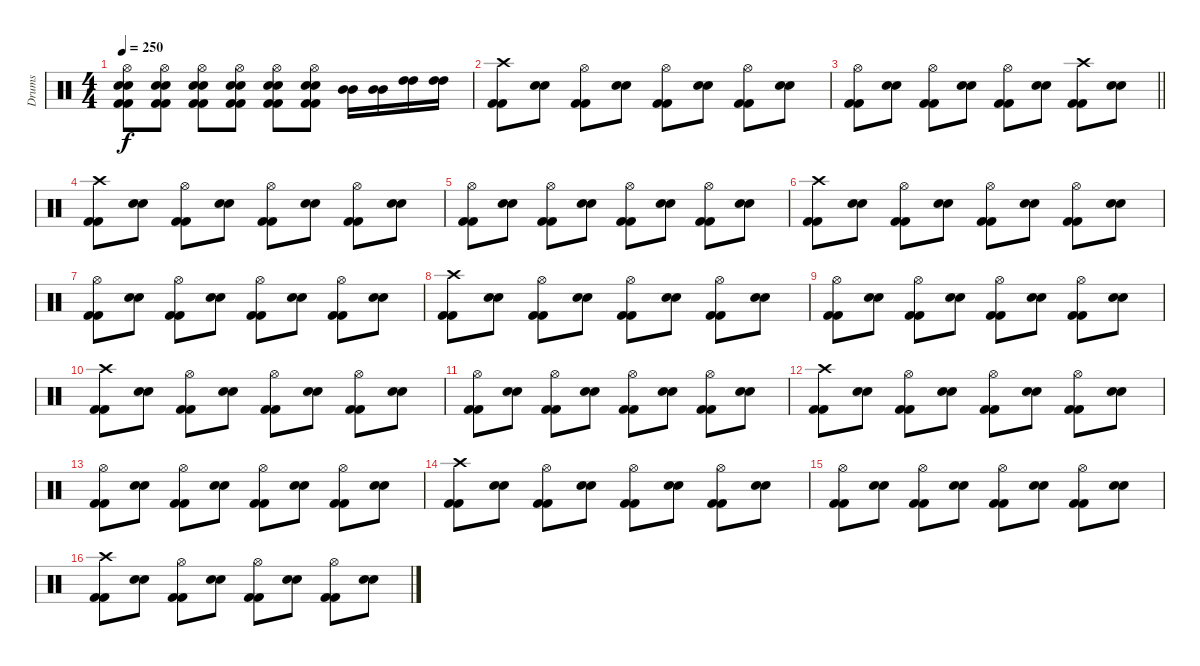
\track ("Drums" "Drums") {instrument percussion}
\staff {score}
\articulation defaults
\ts (4 4)
\tempo 250
\clef neutral
\ks c
("Kick (hit) 2" "Kick (hit) 2" "Electric Snare (hit)" "Electric Snare (hit)" "Hi-Hat (open)").8{dy f} ("Kick (hit) 2" "Kick (hit) 2" "Electric Snare (hit)" "Electric Snare (hit)" "Hi-Hat (open)").8 ("Kick (hit) 2" "Kick (hit) 2" "Electric Snare (hit)" "Electric Snare (hit)" "Hi-Hat (open)").8 ("Kick (hit) 2" "Kick (hit) 2" "Electric Snare (hit)" "Electric Snare (hit)" "Hi-Hat (open)").8 ("Kick (hit) 2" "Kick (hit) 2" "Electric Snare (hit)" "Electric Snare (hit)" "Hi-Hat (open)").8 ("Kick (hit) 2" "Kick (hit) 2" "Electric Snare (hit)" "Electric Snare (hit)" "Hi-Hat (open)").8 ("Mid Tom (hit)" "Mid Tom (hit)").16 ("Mid Tom (hit)" "Mid Tom (hit)").16 ("High Tom (hit)" "High Tom (hit)").16 ("High Tom (hit)" "High Tom (hit)").16 |
("Kick (hit) 2" "Kick (hit) 2" "Crash high (hit)").8 ("Electric Snare (hit)" "Electric Snare (hit)").8 ("Kick (hit) 2" "Kick (hit) 2" "Hi-Hat (open)").8 ("Electric Snare (hit)" "Electric Snare (hit)").8 ("Kick (hit) 2" "Kick (hit) 2" "Hi-Hat (open)").8 ("Electric Snare (hit)" "Electric Snare (hit)").8 ("Kick (hit) 2" "Kick (hit) 2" "Hi-Hat (open)").8 ("Electric Snare (hit)" "Electric Snare (hit)").8 |
\barLineRight lightlight
("Kick (hit) 2" "Kick (hit) 2" "Hi-Hat (open)").8 ("Electric Snare (hit)" "Electric Snare (hit)").8 ("Kick (hit) 2" "Kick (hit) 2" "Hi-Hat (open)").8 ("Electric Snare (hit)" "Electric Snare (hit)").8 ("Kick (hit) 2" "Kick (hit) 2" "Hi-Hat (open)").8 ("Electric Snare (hit)" "Electric Snare (hit)").8 ("Kick (hit) 2" "Kick (hit) 2" "Crash high (hit)").8 ("Electric Snare (hit)" "Electric Snare (hit)").8 |
("Kick (hit) 2" "Kick (hit) 2" "Crash high (hit)").8 ("Electric Snare (hit)" "Electric Snare (hit)").8 ("Kick (hit) 2" "Kick (hit) 2" "Hi-Hat (open)").8 ("Electric Snare (hit)" "Electric Snare (hit)").8 ("Kick (hit) 2" "Kick (hit) 2" "Hi-Hat (open)").8 ("Electric Snare (hit)" "Electric Snare (hit)").8 ("Kick (hit) 2" "Kick (hit) 2" "Hi-Hat (open)").8 ("Electric Snare (hit)" "Electric Snare (hit)").8 |
("Kick (hit) 2" "Kick (hit) 2" "Hi-Hat (open)").8 ("Electric Snare (hit)" "Electric Snare (hit)").8 ("Kick (hit) 2" "Kick (hit) 2" "Hi-Hat (open)").8 ("Electric Snare (hit)" "Electric Snare (hit)").8 ("Kick (hit) 2" "Kick (hit) 2" "Hi-Hat (open)").8 ("Electric Snare (hit)" "Electric Snare (hit)").8 ("Kick (hit) 2" "Kick (hit) 2" "Hi-Hat (open)").8 ("Electric Snare (hit)" "Electric Snare (hit)").8 |
("Kick (hit) 2" "Kick (hit) 2" "Crash high (hit)").8 ("Electric Snare (hit)" "Electric Snare (hit)").8 ("Kick (hit) 2" "Kick (hit) 2" "Hi-Hat (open)").8 ("Electric Snare (hit)" "Electric Snare (hit)").8 ("Kick (hit) 2" "Kick (hit) 2" "Hi-Hat (open)").8 ("Electric Snare (hit)" "Electric Snare (hit)").8 ("Kick (hit) 2" "Kick (hit) 2" "Hi-Hat (open)").8 ("Electric Snare (hit)" "Electric Snare (hit)").8 |
("Kick (hit) 2" "Kick (hit) 2" "Hi-Hat (open)").8 ("Electric Snare (hit)" "Electric Snare (hit)").8 ("Kick (hit) 2" "Kick (hit) 2" "Hi-Hat (open)").8 ("Electric Snare (hit)" "Electric Snare (hit)").8 ("Kick (hit) 2" "Kick (hit) 2" "Hi-Hat (open)").8 ("Electric Snare (hit)" "Electric Snare (hit)").8 ("Kick (hit) 2" "Kick (hit) 2" "Hi-Hat (open)").8 ("Electric Snare (hit)" "Electric Snare (hit)").8 |
("Kick (hit) 2" "Kick (hit) 2" "Crash high (hit)").8 ("Electric Snare (hit)" "Electric Snare (hit)").8 ("Kick (hit) 2" "Kick (hit) 2" "Hi-Hat (open)").8 ("Electric Snare (hit)" "Electric Snare (hit)").8 ("Kick (hit) 2" "Kick (hit) 2" "Hi-Hat (open)").8 ("Electric Snare (hit)" "Electric Snare (hit)").8 ("Kick (hit) 2" "Kick (hit) 2" "Hi-Hat (open)").8 ("Electric Snare (hit)" "Electric Snare (hit)").8 |
("Kick (hit) 2" "Kick (hit) 2" "Hi-Hat (open)").8 ("Electric Snare (hit)" "Electric Snare (hit)").8 ("Kick (hit) 2" "Kick (hit) 2" "Hi-Hat (open)").8 ("Electric Snare (hit)" "Electric Snare (hit)").8 ("Kick (hit) 2" "Kick (hit) 2" "Hi-Hat (open)").8 ("Electric Snare (hit)" "Electric Snare (hit)").8 ("Kick (hit) 2" "Kick (hit) 2" "Hi-Hat (open)").8 ("Electric Snare (hit)" "Electric Snare (hit)").8 |
("Kick (hit) 2" "Kick (hit) 2" "Crash high (hit)").8 ("Electric Snare (hit)" "Electric Snare (hit)").8 ("Kick (hit) 2" "Kick (hit) 2" "Hi-Hat (open)").8 ("Electric Snare (hit)" "Electric Snare (hit)").8 ("Kick (hit) 2" "Kick (hit) 2" "Hi-Hat (open)").8 ("Electric Snare (hit)" "Electric Snare (hit)").8 ("Kick (hit) 2" "Kick (hit) 2" "Hi-Hat (open)").8 ("Electric Snare (hit)" "Electric Snare (hit)").8 |
("Kick (hit) 2" "Kick (hit) 2" "Hi-Hat (open)").8 ("Electric Snare (hit)" "Electric Snare (hit)").8 ("Kick (hit) 2" "Kick (hit) 2" "Hi-Hat (open)").8 ("Electric Snare (hit)" "Electric Snare (hit)").8 ("Kick (hit) 2" "Kick (hit) 2" "Hi-Hat (open)").8 ("Electric Snare (hit)" "Electric Snare (hit)").8 ("Kick (hit) 2" "Kick (hit) 2" "Hi-Hat (open)").8 ("Electric Snare (hit)" "Electric Snare (hit)").8 |
("Kick (hit) 2" "Kick (hit) 2" "Crash high (hit)").8 ("Electric Snare (hit)" "Electric Snare (hit)").8 ("Kick (hit) 2" "Kick (hit) 2" "Hi-Hat (open)").8 ("Electric Snare (hit)" "Electric Snare (hit)").8 ("Kick (hit) 2" "Kick (hit) 2" "Hi-Hat (open)").8 ("Electric Snare (hit)" "Electric Snare (hit)").8 ("Kick (hit) 2" "Kick (hit) 2" "Hi-Hat (open)").8 ("Electric Snare (hit)" "Electric Snare (hit)").8 |
("Kick (hit) 2" "Kick (hit) 2" "Hi-Hat (open)").8 ("Electric Snare (hit)" "Electric Snare (hit)").8 ("Kick (hit) 2" "Kick (hit) 2" "Hi-Hat (open)").8 ("Electric Snare (hit)" "Electric Snare (hit)").8 ("Kick (hit) 2" "Kick (hit) 2" "Hi-Hat (open)").8 ("Electric Snare (hit)" "Electric Snare (hit)").8 ("Kick (hit) 2" "Kick (hit) 2" "Hi-Hat (open)").8 ("Electric Snare (hit)" "Electric Snare (hit)").8 |
("Kick (hit) 2" "Kick (hit) 2" "Crash high (hit)").8 ("Electric Snare (hit)" "Electric Snare (hit)").8 ("Kick (hit) 2" "Kick (hit) 2" "Hi-Hat (open)").8 ("Electric Snare (hit)" "Electric Snare (hit)").8 ("Kick (hit) 2" "Kick (hit) 2" "Hi-Hat (open)").8 ("Electric Snare (hit)" "Electric Snare (hit)").8 ("Kick (hit) 2" "Kick (hit) 2" "Hi-Hat (open)").8 ("Electric Snare (hit)" "Electric Snare (hit)").8 |
("Kick (hit) 2" "Kick (hit) 2" "Hi-Hat (open)").8 ("Electric Snare (hit)" "Electric Snare (hit)").8 ("Kick (hit) 2" "Kick (hit) 2" "Hi-Hat (open)").8 ("Electric Snare (hit)" "Electric Snare (hit)").8 ("Kick (hit) 2" "Kick (hit) 2" "Hi-Hat (open)").8 ("Electric Snare (hit)" "Electric Snare (hit)").8 ("Kick (hit) 2" "Kick (hit) 2" "Hi-Hat (open)").8 ("Electric Snare (hit)" "Electric Snare (hit)").8 |
("Kick (hit) 2" "Kick (hit) 2" "Crash high (hit)").8 ("Electric Snare (hit)" "Electric Snare (hit)").8 ("Kick (hit) 2" "Kick (hit) 2" "Hi-Hat (open)").8 ("Electric Snare (hit)" "Electric Snare (hit)").8 ("Kick (hit) 2" "Kick (hit) 2" "Hi-Hat (open)").8 ("Electric Snare (hit)" "Electric Snare (hit)").8 ("Kick (hit) 2" "Kick (hit) 2" "Hi-Hat (open)").8 ("Electric Snare (hit)" "Electric Snare (hit)").8
